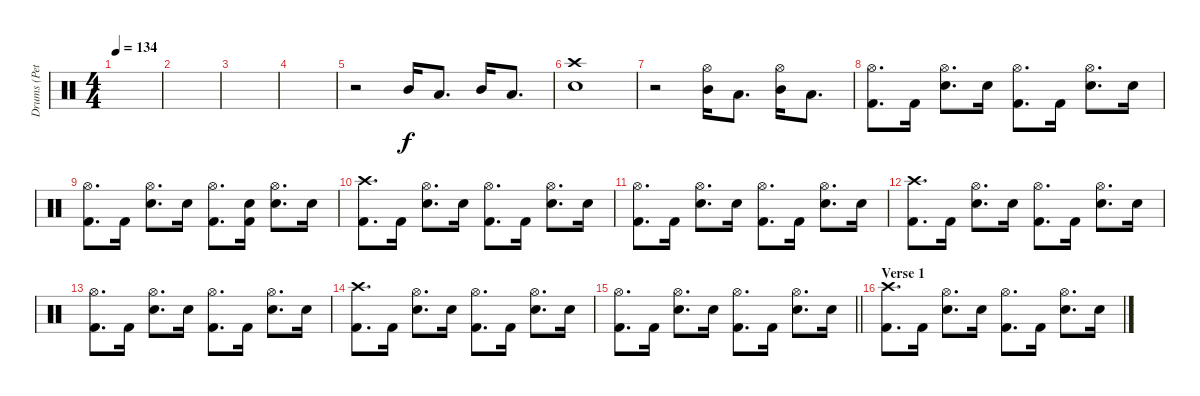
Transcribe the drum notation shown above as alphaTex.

\track ("Drums (Peter Criss)" "Drums (Pet") {instrument percussion}
\staff {score}
\articulation defaults
\ts (4 4)
\tempo 134
\clef neutral
\ks c
|
|
|
|
r.2 "Mid Tom (hit)".16 "Low Tom (hit)".8{d} "Mid Tom (hit)".16 "Low Tom (hit)".8{d} |
("Snare (hit) 2" "Crash high (hit)").1 |
r.2 ("Mid Tom (hit)" "Hi-Hat (open)").16 "Low Tom (hit)".8{d} ("Mid Tom (hit)" "Hi-Hat (open)").16 "Low Tom (hit)".8{d} |
("Hi-Hat (open)" "Kick (hit) 2").8{d} "Kick (hit) 2".16 ("Snare (hit) 2" "Hi-Hat (open)").8{d} "Snare (hit) 2".16 ("Hi-Hat (open)" "Kick (hit) 2").8{d} "Kick (hit) 2".16 ("Snare (hit) 2" "Hi-Hat (open)").8{d} "Snare (hit) 2".16 |
("Hi-Hat (open)" "Kick (hit) 2").8{d} "Kick (hit) 2".16 ("Snare (hit) 2" "Hi-Hat (open)").8{d} "Snare (hit) 2".16 ("Hi-Hat (open)" "Kick (hit) 2").8{d} ("Snare (hit) 2" "Kick (hit) 2").16 ("Snare (hit) 2" "Hi-Hat (open)").8{d} "Snare (hit) 2".16 |
("Crash high (hit)" "Kick (hit) 2").8{d} "Kick (hit) 2".16 ("Snare (hit) 2" "Hi-Hat (open)").8{d} "Snare (hit) 2".16 ("Hi-Hat (open)" "Kick (hit) 2").8{d} "Kick (hit) 2".16 ("Snare (hit) 2" "Hi-Hat (open)").8{d} "Snare (hit) 2".16 |
("Hi-Hat (open)" "Kick (hit) 2").8{d} "Kick (hit) 2".16 ("Snare (hit) 2" "Hi-Hat (open)").8{d} "Snare (hit) 2".16 ("Hi-Hat (open)" "Kick (hit) 2").8{d} "Kick (hit) 2".16 ("Snare (hit) 2" "Hi-Hat (open)").8{d} "Snare (hit) 2".16 |
("Crash high (hit)" "Kick (hit) 2").8{d} "Kick (hit) 2".16 ("Snare (hit) 2" "Hi-Hat (open)").8{d} "Snare (hit) 2".16 ("Hi-Hat (open)" "Kick (hit) 2").8{d} "Kick (hit) 2".16 ("Snare (hit) 2" "Hi-Hat (open)").8{d} "Snare (hit) 2".16 |
("Hi-Hat (open)" "Kick (hit) 2").8{d} "Kick (hit) 2".16 ("Snare (hit) 2" "Hi-Hat (open)").8{d} "Snare (hit) 2".16 ("Hi-Hat (open)" "Kick (hit) 2").8{d} "Kick (hit) 2".16 ("Snare (hit) 2" "Hi-Hat (open)").8{d} "Snare (hit) 2".16 |
("Crash high (hit)" "Kick (hit) 2").8{d} "Kick (hit) 2".16 ("Snare (hit) 2" "Hi-Hat (open)").8{d} "Snare (hit) 2".16 ("Hi-Hat (open)" "Kick (hit) 2").8{d} "Kick (hit) 2".16 ("Snare (hit) 2" "Hi-Hat (open)").8{d} "Snare (hit) 2".16 |
\barLineRight lightlight
("Hi-Hat (open)" "Kick (hit) 2").8{d} "Kick (hit) 2".16 ("Snare (hit) 2" "Hi-Hat (open)").8{d} "Snare (hit) 2".16 ("Hi-Hat (open)" "Kick (hit) 2").8{d} "Kick (hit) 2".16 ("Snare (hit) 2" "Hi-Hat (open)").8{d} "Snare (hit) 2".16 |
\section ("" "Verse 1")
("Crash high (hit)" "Kick (hit) 2").8{d} "Kick (hit) 2".16 ("Snare (hit) 2" "Hi-Hat (open)").8{d} "Snare (hit) 2".16 ("Hi-Hat (open)" "Kick (hit) 2").8{d} "Kick (hit) 2".16 ("Snare (hit) 2" "Hi-Hat (open)").8{d} "Snare (hit) 2".16
